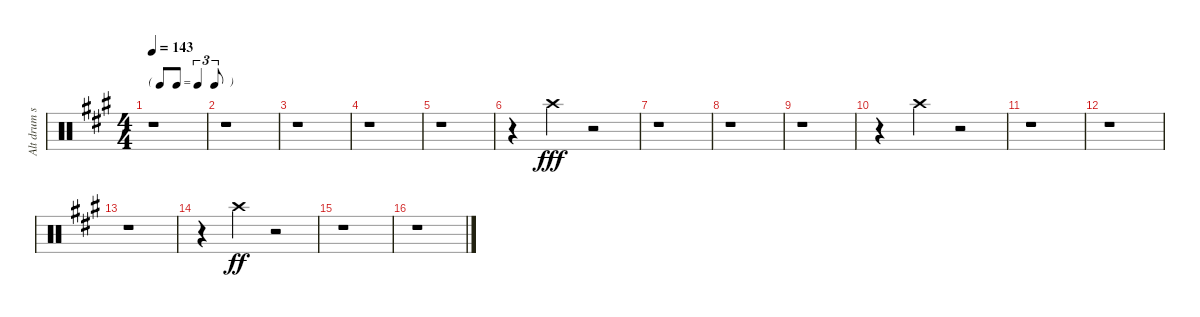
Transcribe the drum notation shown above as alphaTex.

\track ("Alt drum sounds" "Alt drum s") {instrument percussion}
\staff {score}
\articulation defaults
\ts (4 4)
\tf triplet8th
\tempo 143
\clef neutral
\ks a
r.1{dy fff} |
r.1 |
r.1 |
r.1 |
r.1 |
r.4 "Crash high (hit)".4 r.2 |
r.1 |
r.1 |
r.1 |
r.4 "Crash high (hit)".4 r.2 |
r.1 |
r.1 |
r.1 |
r.4 "Crash high (hit)".4{dy ff} r.2 |
r.1 |
r.1
